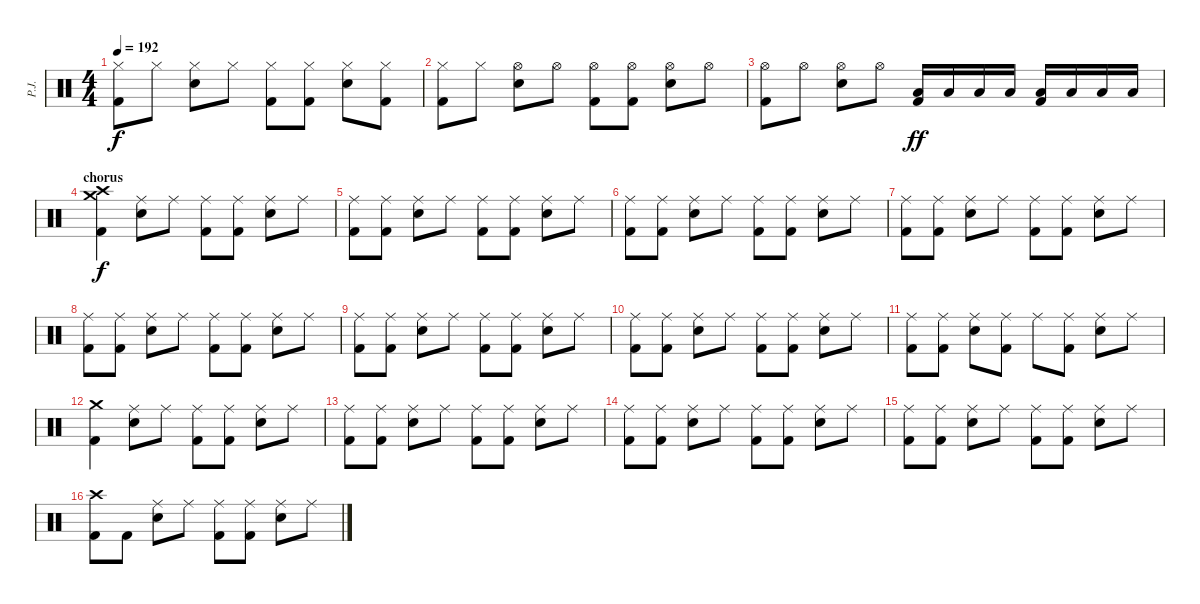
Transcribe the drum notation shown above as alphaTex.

\track ("P.J." "P.J.") {instrument percussion}
\staff {score}
\articulation defaults
\ts (4 4)
\tempo 192
\clef neutral
\ks c
("Hi-Hat (closed)" "Kick (hit) 2").8{dy f} "Hi-Hat (closed)".8 ("Hi-Hat (closed)" "Snare (hit) 2").8 "Hi-Hat (closed)".8 ("Hi-Hat (closed)" "Kick (hit) 2").8 ("Hi-Hat (closed)" "Kick (hit) 2").8 ("Hi-Hat (closed)" "Snare (hit) 2").8 ("Hi-Hat (closed)" "Kick (hit) 2").8 |
("Hi-Hat (closed)" "Kick (hit) 2").8 "Hi-Hat (closed)".8 ("Hi-Hat (open)" "Snare (hit) 2").8 "Hi-Hat (open)".8 ("Hi-Hat (open)" "Kick (hit) 2").8 ("Hi-Hat (open)" "Kick (hit) 2").8 ("Hi-Hat (open)" "Snare (hit) 2").8 "Hi-Hat (open)".8 |
("Hi-Hat (open)" "Kick (hit) 2").8 "Hi-Hat (open)".8 ("Hi-Hat (open)" "Snare (hit) 2").8 "Hi-Hat (open)".8 ("Low Tom (hit)" "Kick (hit) 2").16{dy ff} "Low Tom (hit)".16 "Low Tom (hit)".16 "Low Tom (hit)".16 ("Low Tom (hit)" "Kick (hit) 2").16 "Low Tom (hit)".16 "Low Tom (hit)".16 "Low Tom (hit)".16 |
\section ("" "chorus")
("Crash high (hit)" "Crash medium (hit)" "Kick (hit) 2").4{dy f} ("Ride (middle)" "Snare (hit) 2").8 "Ride (middle)".8 ("Ride (middle)" "Kick (hit) 2").8 ("Ride (middle)" "Kick (hit) 2").8 ("Ride (middle)" "Snare (hit) 2").8 "Ride (middle)".8 |
("Ride (middle)" "Kick (hit) 2").8 ("Ride (middle)" "Kick (hit) 2").8 ("Ride (middle)" "Snare (hit) 2").8 "Ride (middle)".8 ("Ride (middle)" "Kick (hit) 2").8 ("Ride (middle)" "Kick (hit) 2").8 ("Ride (middle)" "Snare (hit) 2").8 "Ride (middle)".8 |
("Ride (middle)" "Kick (hit) 2").8 ("Ride (middle)" "Kick (hit) 2").8 ("Ride (middle)" "Snare (hit) 2").8 "Ride (middle)".8 ("Ride (middle)" "Kick (hit) 2").8 ("Ride (middle)" "Kick (hit) 2").8 ("Ride (middle)" "Snare (hit) 2").8 "Ride (middle)".8 |
("Ride (middle)" "Kick (hit) 2").8 ("Ride (middle)" "Kick (hit) 2").8 ("Ride (middle)" "Snare (hit) 2").8 "Ride (middle)".8 ("Ride (middle)" "Kick (hit) 2").8 ("Ride (middle)" "Kick (hit) 2").8 ("Ride (middle)" "Snare (hit) 2").8 "Ride (middle)".8 |
("Ride (middle)" "Kick (hit) 2").8 ("Ride (middle)" "Kick (hit) 2").8 ("Ride (middle)" "Snare (hit) 2").8 "Ride (middle)".8 ("Ride (middle)" "Kick (hit) 2").8 ("Ride (middle)" "Kick (hit) 2").8 ("Ride (middle)" "Snare (hit) 2").8 "Ride (middle)".8 |
("Ride (middle)" "Kick (hit) 2").8 ("Ride (middle)" "Kick (hit) 2").8 ("Ride (middle)" "Snare (hit) 2").8 "Ride (middle)".8 ("Ride (middle)" "Kick (hit) 2").8 ("Ride (middle)" "Kick (hit) 2").8 ("Ride (middle)" "Snare (hit) 2").8 "Ride (middle)".8 |
("Ride (middle)" "Kick (hit) 2").8 ("Ride (middle)" "Kick (hit) 2").8 ("Ride (middle)" "Snare (hit) 2").8 "Ride (middle)".8 ("Ride (middle)" "Kick (hit) 2").8 ("Ride (middle)" "Kick (hit) 2").8 ("Ride (middle)" "Snare (hit) 2").8 "Ride (middle)".8 |
("Ride (middle)" "Kick (hit) 2").8 ("Ride (middle)" "Kick (hit) 2").8 ("Ride (middle)" "Snare (hit) 2").8 ("Ride (middle)" "Kick (hit) 2").8 "Ride (middle)".8 ("Ride (middle)" "Kick (hit) 2").8 ("Ride (middle)" "Snare (hit) 2").8 "Ride (middle)".8 |
("Crash medium (hit)" "Kick (hit) 2").4 ("Ride (middle)" "Snare (hit) 2").8 "Ride (middle)".8 ("Ride (middle)" "Kick (hit) 2").8 ("Ride (middle)" "Kick (hit) 2").8 ("Ride (middle)" "Snare (hit) 2").8 "Ride (middle)".8 |
("Ride (middle)" "Kick (hit) 2").8 ("Ride (middle)" "Kick (hit) 2").8 ("Ride (middle)" "Snare (hit) 2").8 "Ride (middle)".8 ("Ride (middle)" "Kick (hit) 2").8 ("Ride (middle)" "Kick (hit) 2").8 ("Ride (middle)" "Snare (hit) 2").8 "Ride (middle)".8 |
("Ride (middle)" "Kick (hit) 2").8 ("Ride (middle)" "Kick (hit) 2").8 ("Ride (middle)" "Snare (hit) 2").8 "Ride (middle)".8 ("Ride (middle)" "Kick (hit) 2").8 ("Ride (middle)" "Kick (hit) 2").8 ("Ride (middle)" "Snare (hit) 2").8 "Ride (middle)".8 |
("Ride (middle)" "Kick (hit) 2").8 ("Ride (middle)" "Kick (hit) 2").8 ("Ride (middle)" "Snare (hit) 2").8 "Ride (middle)".8 ("Ride (middle)" "Kick (hit) 2").8 ("Ride (middle)" "Kick (hit) 2").8 ("Ride (middle)" "Snare (hit) 2").8 "Ride (middle)".8 |
("Crash high (hit)" "Kick (hit) 2").8 "Kick (hit) 2".8 ("Ride (middle)" "Snare (hit) 2").8 "Ride (middle)".8 ("Ride (middle)" "Kick (hit) 2").8 ("Ride (middle)" "Kick (hit) 2").8 ("Ride (middle)" "Snare (hit) 2").8 "Ride (middle)".8
